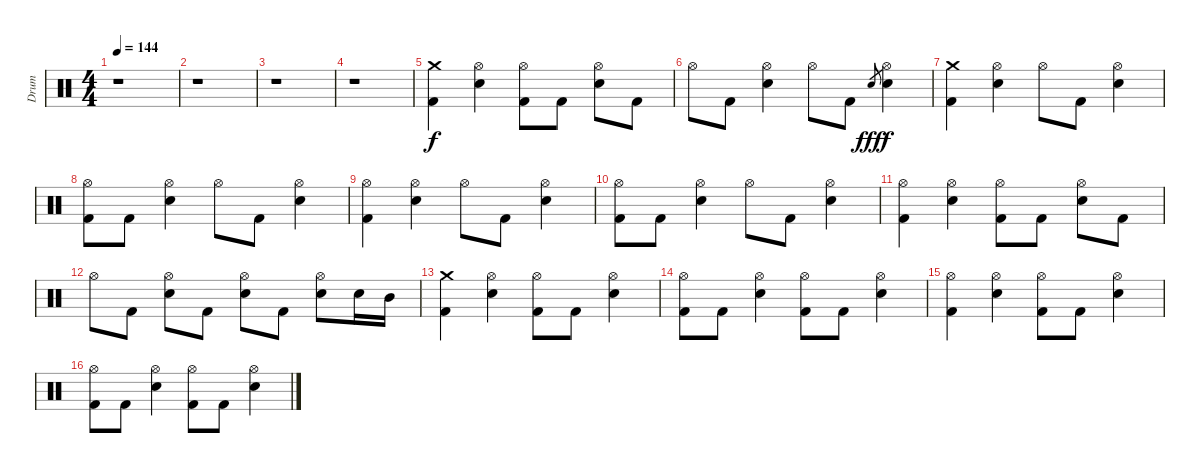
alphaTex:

\track ("Drum" "Drum") {instrument percussion}
\staff {score}
\articulation defaults
\ts (4 4)
\tempo 144
\clef neutral
\ks c
r.1{dy f} |
r.1 |
r.1 |
r.1 |
("Crash medium (hit)" "Kick (hit) 2").4 ("Hi-Hat (open)" "Electric Snare (hit)").4 ("Hi-Hat (open)" "Kick (hit) 2").8 "Kick (hit) 2".8 ("Hi-Hat (open)" "Electric Snare (hit)").8 "Kick (hit) 2".8 |
"Hi-Hat (open)".8 "Kick (hit) 2".8 ("Hi-Hat (open)" "Electric Snare (hit)").4 "Hi-Hat (open)".8 "Kick (hit) 2".8 "Electric Snare (hit)".8{gr dy fff} ("Hi-Hat (open)" "Electric Snare (hit)").4{dy f} |
("Crash medium (hit)" "Kick (hit) 2").4 ("Hi-Hat (open)" "Electric Snare (hit)").4 "Hi-Hat (open)".8 "Kick (hit) 2".8 ("Hi-Hat (open)" "Electric Snare (hit)").4 |
("Hi-Hat (open)" "Kick (hit) 2").8 "Kick (hit) 2".8 ("Hi-Hat (open)" "Electric Snare (hit)").4 "Hi-Hat (open)".8 "Kick (hit) 2".8 ("Hi-Hat (open)" "Electric Snare (hit)").4 |
("Hi-Hat (open)" "Kick (hit) 2").4 ("Hi-Hat (open)" "Electric Snare (hit)").4 "Hi-Hat (open)".8 "Kick (hit) 2".8 ("Hi-Hat (open)" "Electric Snare (hit)").4 |
("Hi-Hat (open)" "Kick (hit) 2").8 "Kick (hit) 2".8 ("Hi-Hat (open)" "Electric Snare (hit)").4 "Hi-Hat (open)".8 "Kick (hit) 2".8 ("Hi-Hat (open)" "Electric Snare (hit)").4 |
("Hi-Hat (open)" "Kick (hit) 2").4 ("Hi-Hat (open)" "Electric Snare (hit)").4 ("Hi-Hat (open)" "Kick (hit) 2").8 "Kick (hit) 2".8 ("Hi-Hat (open)" "Electric Snare (hit)").8 "Kick (hit) 2".8 |
"Hi-Hat (open)".8 "Kick (hit) 2".8 ("Hi-Hat (open)" "Electric Snare (hit)").8 "Kick (hit) 2".8 ("Hi-Hat (open)" "Electric Snare (hit)").8 "Kick (hit) 2".8 ("Hi-Hat (open)" "Electric Snare (hit)").8 "Electric Snare (hit)".16 "Mid Tom (hit)".16 |
("Crash medium (hit)" "Kick (hit) 2").4 ("Hi-Hat (open)" "Electric Snare (hit)").4 ("Hi-Hat (open)" "Kick (hit) 2").8 "Kick (hit) 2".8 ("Hi-Hat (open)" "Electric Snare (hit)").4 |
("Hi-Hat (open)" "Kick (hit) 2").8 "Kick (hit) 2".8 ("Hi-Hat (open)" "Electric Snare (hit)").4 ("Hi-Hat (open)" "Kick (hit) 2").8 "Kick (hit) 2".8 ("Hi-Hat (open)" "Electric Snare (hit)").4 |
("Hi-Hat (open)" "Kick (hit) 2").4 ("Hi-Hat (open)" "Electric Snare (hit)").4 ("Hi-Hat (open)" "Kick (hit) 2").8 "Kick (hit) 2".8 ("Hi-Hat (open)" "Electric Snare (hit)").4 |
("Hi-Hat (open)" "Kick (hit) 2").8 "Kick (hit) 2".8 ("Hi-Hat (open)" "Electric Snare (hit)").4 ("Hi-Hat (open)" "Kick (hit) 2").8 "Kick (hit) 2".8 ("Hi-Hat (open)" "Electric Snare (hit)").4
